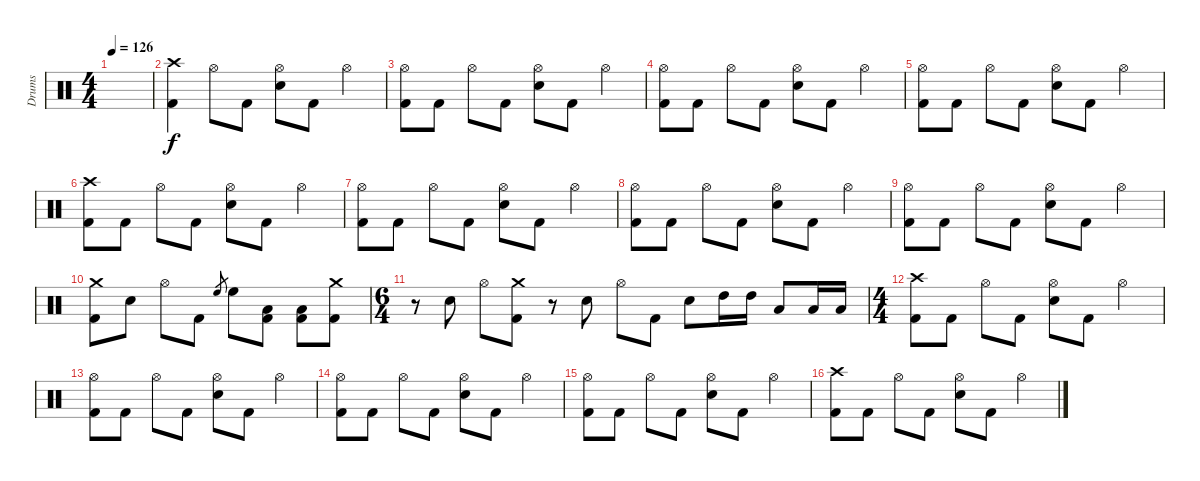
\track ("Drums" "Drums") {instrument percussion}
\staff {score}
\articulation defaults
\ts (4 4)
\tempo 126
\clef neutral
\ks c
|
("Crash high (hit)" "Kick (hit) 2").4 "Hi-Hat (open)".8 "Kick (hit) 2".8 ("Hi-Hat (open)" "Electric Snare (hit)").8 "Kick (hit) 2".8 "Hi-Hat (open)".4 |
("Hi-Hat (open)" "Kick (hit) 2").8 "Kick (hit) 2".8 "Hi-Hat (open)".8 "Kick (hit) 2".8 ("Hi-Hat (open)" "Electric Snare (hit)").8 "Kick (hit) 2".8 "Hi-Hat (open)".4 |
("Hi-Hat (open)" "Kick (hit) 2").8 "Kick (hit) 2".8 "Hi-Hat (open)".8 "Kick (hit) 2".8 ("Hi-Hat (open)" "Electric Snare (hit)").8 "Kick (hit) 2".8 "Hi-Hat (open)".4 |
("Hi-Hat (open)" "Kick (hit) 2").8 "Kick (hit) 2".8 "Hi-Hat (open)".8 "Kick (hit) 2".8 ("Hi-Hat (open)" "Electric Snare (hit)").8 "Kick (hit) 2".8 "Hi-Hat (open)".4 |
("Crash high (hit)" "Kick (hit) 2").8 "Kick (hit) 2".8 "Hi-Hat (open)".8 "Kick (hit) 2".8 ("Hi-Hat (open)" "Electric Snare (hit)").8 "Kick (hit) 2".8 "Hi-Hat (open)".4 |
("Hi-Hat (open)" "Kick (hit) 2").8 "Kick (hit) 2".8 "Hi-Hat (open)".8 "Kick (hit) 2".8 ("Hi-Hat (open)" "Electric Snare (hit)").8 "Kick (hit) 2".8 "Hi-Hat (open)".4 |
("Hi-Hat (open)" "Kick (hit) 2").8 "Kick (hit) 2".8 "Hi-Hat (open)".8 "Kick (hit) 2".8 ("Hi-Hat (open)" "Electric Snare (hit)").8 "Kick (hit) 2".8 "Hi-Hat (open)".4 |
("Hi-Hat (open)" "Kick (hit) 2").8 "Kick (hit) 2".8 "Hi-Hat (open)".8 "Kick (hit) 2".8 ("Hi-Hat (open)" "Electric Snare (hit)").8 "Kick (hit) 2".8 "Hi-Hat (open)".4 |
("Crash medium (hit)" "Kick (hit) 2").8 "Electric Snare (hit)".8 "Hi-Hat (open)".8 "Kick (hit) 2".8 "High Floor Tom (hit)".8{gr} "High Floor Tom (hit)".8 ("Low Tom (hit)" "Kick (hit) 2").8 ("Low Floor Tom (hit)" "Kick (hit) 2").8 ("Crash medium (hit)" "Kick (hit) 2").8 |
\ts (6 4)
r.8 "Electric Snare (hit)".8 "Hi-Hat (open)".8 ("Crash medium (hit)" "Kick (hit) 2").8 r.8 "Electric Snare (hit)".8 "Hi-Hat (open)".8 "Kick (hit) 2".8 "Electric Snare (hit)".8 "High Tom (hit)".16 "High Tom (hit)".16 "Low Tom (hit)".8 "Low Tom (hit)".16 "Low Tom (hit)".16 |
\ts (4 4)
("Crash high (hit)" "Kick (hit) 2").8 "Kick (hit) 2".8 "Hi-Hat (open)".8 "Kick (hit) 2".8 ("Hi-Hat (open)" "Electric Snare (hit)").8 "Kick (hit) 2".8 "Hi-Hat (open)".4 |
("Hi-Hat (open)" "Kick (hit) 2").8 "Kick (hit) 2".8 "Hi-Hat (open)".8 "Kick (hit) 2".8 ("Hi-Hat (open)" "Electric Snare (hit)").8 "Kick (hit) 2".8 "Hi-Hat (open)".4 |
("Hi-Hat (open)" "Kick (hit) 2").8 "Kick (hit) 2".8 "Hi-Hat (open)".8 "Kick (hit) 2".8 ("Hi-Hat (open)" "Electric Snare (hit)").8 "Kick (hit) 2".8 "Hi-Hat (open)".4 |
("Hi-Hat (open)" "Kick (hit) 2").8 "Kick (hit) 2".8 "Hi-Hat (open)".8 "Kick (hit) 2".8 ("Hi-Hat (open)" "Electric Snare (hit)").8 "Kick (hit) 2".8 "Hi-Hat (open)".4 |
("Crash high (hit)" "Kick (hit) 2").8 "Kick (hit) 2".8 "Hi-Hat (open)".8 "Kick (hit) 2".8 ("Hi-Hat (open)" "Electric Snare (hit)").8 "Kick (hit) 2".8 "Hi-Hat (open)".4
